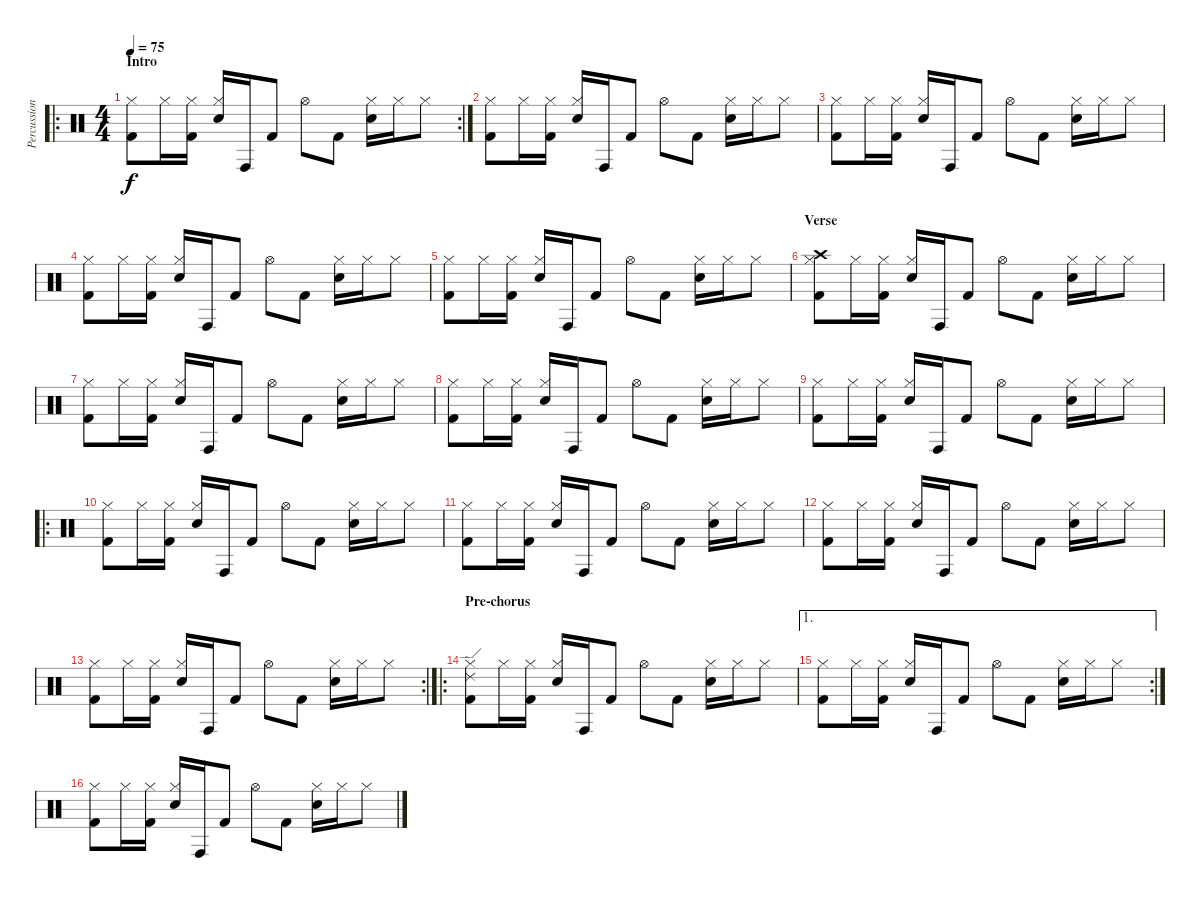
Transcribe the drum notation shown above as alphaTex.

\track ("Percussion" "Percussion") {instrument percussion}
\staff {score}
\articulation defaults
\ro
\rc 2
\ts (4 4)
\section ("" "Intro")
\tempo 75
\clef neutral
\ks c
("Hi-Hat (closed)" "Kick (hit) 2").8{dy f} "Hi-Hat (closed)".16 ("Hi-Hat (closed)" "Kick (hit) 2").16 ("Hi-Hat (closed)" "Electric Snare (hit)").16 "Conga high (hit)".16 "Kick (hit) 2".8 "Hi-Hat (open)".8 "Kick (hit) 2".8 ("Hi-Hat (closed)" "Snare (hit) 2").16 "Hi-Hat (closed)".16 "Hi-Hat (closed)".8 |
("Hi-Hat (closed)" "Kick (hit) 2").8 "Hi-Hat (closed)".16 ("Hi-Hat (closed)" "Kick (hit) 2").16 ("Hi-Hat (closed)" "Electric Snare (hit)").16 "Conga high (hit)".16 "Kick (hit) 2".8 "Hi-Hat (open)".8 "Kick (hit) 2".8 ("Hi-Hat (closed)" "Snare (hit) 2").16 "Hi-Hat (closed)".16 "Hi-Hat (closed)".8 |
("Hi-Hat (closed)" "Kick (hit) 2").8 "Hi-Hat (closed)".16 ("Hi-Hat (closed)" "Kick (hit) 2").16 ("Hi-Hat (closed)" "Electric Snare (hit)").16 "Conga high (hit)".16 "Kick (hit) 2".8 "Hi-Hat (open)".8 "Kick (hit) 2".8 ("Hi-Hat (closed)" "Snare (hit) 2").16 "Hi-Hat (closed)".16 "Hi-Hat (closed)".8 |
("Hi-Hat (closed)" "Kick (hit) 2").8 "Hi-Hat (closed)".16 ("Hi-Hat (closed)" "Kick (hit) 2").16 ("Hi-Hat (closed)" "Electric Snare (hit)").16 "Conga high (hit)".16 "Kick (hit) 2".8 "Hi-Hat (open)".8 "Kick (hit) 2".8 ("Hi-Hat (closed)" "Snare (hit) 2").16 "Hi-Hat (closed)".16 "Hi-Hat (closed)".8 |
("Hi-Hat (closed)" "Kick (hit) 2").8 "Hi-Hat (closed)".16 ("Hi-Hat (closed)" "Kick (hit) 2").16 ("Hi-Hat (closed)" "Electric Snare (hit)").16 "Conga high (hit)".16 "Kick (hit) 2".8 "Hi-Hat (open)".8 "Kick (hit) 2".8 ("Hi-Hat (closed)" "Snare (hit) 2").16 "Hi-Hat (closed)".16 "Hi-Hat (closed)".8 |
\section ("" "Verse")
("Crash high (hit)" "Hi-Hat (closed)" "Kick (hit) 2").8 "Hi-Hat (closed)".16 ("Hi-Hat (closed)" "Kick (hit) 2").16 ("Hi-Hat (closed)" "Electric Snare (hit)").16 "Conga high (hit)".16 "Kick (hit) 2".8 "Hi-Hat (open)".8 "Kick (hit) 2".8 ("Hi-Hat (closed)" "Snare (hit) 2").16 "Hi-Hat (closed)".16 "Hi-Hat (closed)".8 |
("Hi-Hat (closed)" "Kick (hit) 2").8 "Hi-Hat (closed)".16 ("Hi-Hat (closed)" "Kick (hit) 2").16 ("Hi-Hat (closed)" "Electric Snare (hit)").16 "Conga high (hit)".16 "Kick (hit) 2".8 "Hi-Hat (open)".8 "Kick (hit) 2".8 ("Hi-Hat (closed)" "Snare (hit) 2").16 "Hi-Hat (closed)".16 "Hi-Hat (closed)".8 |
("Hi-Hat (closed)" "Kick (hit) 2").8 "Hi-Hat (closed)".16 ("Hi-Hat (closed)" "Kick (hit) 2").16 ("Hi-Hat (closed)" "Electric Snare (hit)").16 "Conga high (hit)".16 "Kick (hit) 2".8 "Hi-Hat (open)".8 "Kick (hit) 2".8 ("Hi-Hat (closed)" "Snare (hit) 2").16 "Hi-Hat (closed)".16 "Hi-Hat (closed)".8 |
("Hi-Hat (closed)" "Kick (hit) 2").8 "Hi-Hat (closed)".16 ("Hi-Hat (closed)" "Kick (hit) 2").16 ("Hi-Hat (closed)" "Electric Snare (hit)").16 "Conga high (hit)".16 "Kick (hit) 2".8 "Hi-Hat (open)".8 "Kick (hit) 2".8 ("Hi-Hat (closed)" "Snare (hit) 2").16 "Hi-Hat (closed)".16 "Hi-Hat (closed)".8 |
\ro
("Hi-Hat (closed)" "Kick (hit) 2").8 "Hi-Hat (closed)".16 ("Hi-Hat (closed)" "Kick (hit) 2").16 ("Hi-Hat (closed)" "Electric Snare (hit)").16 "Conga high (hit)".16 "Kick (hit) 2".8 "Hi-Hat (open)".8 "Kick (hit) 2".8 ("Hi-Hat (closed)" "Snare (hit) 2").16 "Hi-Hat (closed)".16 "Hi-Hat (closed)".8 |
("Hi-Hat (closed)" "Kick (hit) 2").8 "Hi-Hat (closed)".16 ("Hi-Hat (closed)" "Kick (hit) 2").16 ("Hi-Hat (closed)" "Electric Snare (hit)").16 "Conga high (hit)".16 "Kick (hit) 2".8 "Hi-Hat (open)".8 "Kick (hit) 2".8 ("Hi-Hat (closed)" "Snare (hit) 2").16 "Hi-Hat (closed)".16 "Hi-Hat (closed)".8 |
("Hi-Hat (closed)" "Kick (hit) 2").8 "Hi-Hat (closed)".16 ("Hi-Hat (closed)" "Kick (hit) 2").16 ("Hi-Hat (closed)" "Electric Snare (hit)").16 "Conga high (hit)".16 "Kick (hit) 2".8 "Hi-Hat (open)".8 "Kick (hit) 2".8 ("Hi-Hat (closed)" "Snare (hit) 2").16 "Hi-Hat (closed)".16 "Hi-Hat (closed)".8 |
\rc 2
("Hi-Hat (closed)" "Kick (hit) 2").8 "Hi-Hat (closed)".16 ("Hi-Hat (closed)" "Kick (hit) 2").16 ("Hi-Hat (closed)" "Electric Snare (hit)").16 "Conga high (hit)".16 "Kick (hit) 2".8 "Hi-Hat (open)".8 "Kick (hit) 2".8 ("Hi-Hat (closed)" "Snare (hit) 2").16 "Hi-Hat (closed)".16 "Hi-Hat (closed)".8 |
\ro
\section ("" "Pre-chorus")
("Ride (edge) 2" "Hi-Hat (closed)" "Kick (hit) 2").8 "Hi-Hat (closed)".16 ("Hi-Hat (closed)" "Kick (hit) 2").16 ("Hi-Hat (closed)" "Electric Snare (hit)").16 "Conga high (hit)".16 "Kick (hit) 2".8 "Hi-Hat (open)".8 "Kick (hit) 2".8 ("Hi-Hat (closed)" "Snare (hit) 2").16 "Hi-Hat (closed)".16 "Hi-Hat (closed)".8 |
\ae 1
\rc 2
("Hi-Hat (closed)" "Kick (hit) 2").8 "Hi-Hat (closed)".16 ("Hi-Hat (closed)" "Kick (hit) 2").16 ("Hi-Hat (closed)" "Electric Snare (hit)").16 "Conga high (hit)".16 "Kick (hit) 2".8 "Hi-Hat (open)".8 "Kick (hit) 2".8 ("Hi-Hat (closed)" "Snare (hit) 2").16 "Hi-Hat (closed)".16 "Hi-Hat (closed)".8 |
("Hi-Hat (closed)" "Kick (hit) 2").8 "Hi-Hat (closed)".16 ("Hi-Hat (closed)" "Kick (hit) 2").16 ("Hi-Hat (closed)" "Electric Snare (hit)").16 "Conga high (hit)".16 "Kick (hit) 2".8 "Hi-Hat (open)".8 "Kick (hit) 2".8 ("Hi-Hat (closed)" "Snare (hit) 2").16 "Hi-Hat (closed)".16 "Hi-Hat (closed)".8
